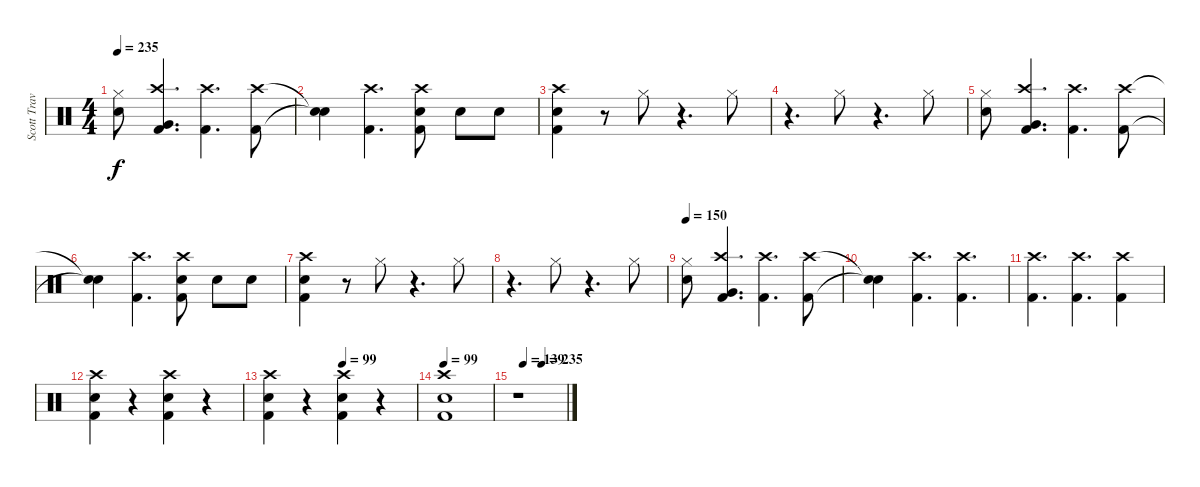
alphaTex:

\track ("Scott Travis" "Scott Trav") {instrument percussion}
\staff {score}
\articulation defaults
\ts (4 4)
\tempo 235
\clef neutral
\ks c
("Hi-Hat (closed)" "Snare (hit) 2").8{dy f} ("Kick (hit) 2" "Crash high (hit)" "Very Low Tom (hit)").4{d} ("Kick (hit) 2" "Crash high (hit)").4{d} ("Kick (hit) 2" "Crash high (hit)").8 |
("Snare (hit)"{t} "Snare (hit)"{t}).4 ("Kick (hit) 2" "Crash high (hit)").4{d} ("Kick (hit) 2" "Crash high (hit)" "Snare (hit) 2").8 "Snare (hit) 2".8 "Snare (hit) 2".8 |
("Crash high (hit)" "Kick (hit) 2" "Snare (hit) 2").4 r.8 "Hi-Hat (closed)".8 r.4{d} "Hi-Hat (closed)".8 |
r.4{d} "Hi-Hat (closed)".8 r.4{d} "Hi-Hat (closed)".8 |
("Hi-Hat (closed)" "Snare (hit) 2").8 ("Kick (hit) 2" "Crash high (hit)" "Very Low Tom (hit)").4{d} ("Kick (hit) 2" "Crash high (hit)").4{d} ("Kick (hit) 2" "Crash high (hit)").8 |
("Snare (hit)"{t} "Snare (hit)"{t}).4 ("Kick (hit) 2" "Crash high (hit)").4{d} ("Kick (hit) 2" "Crash high (hit)" "Snare (hit) 2").8 "Snare (hit) 2".8 "Snare (hit) 2".8 |
("Crash high (hit)" "Kick (hit) 2" "Snare (hit) 2").4 r.8 "Hi-Hat (closed)".8 r.4{d} "Hi-Hat (closed)".8 |
r.4{d} "Hi-Hat (closed)".8 r.4{d} "Hi-Hat (closed)".8 |
\tempo 150
("Hi-Hat (closed)" "Snare (hit) 2").8 ("Kick (hit) 2" "Crash high (hit)" "Very Low Tom (hit)").4{d} ("Kick (hit) 2" "Crash high (hit)").4{d} ("Kick (hit) 2" "Crash high (hit)").8 |
("Snare (hit)"{t} "Snare (hit)"{t}).4 ("Kick (hit) 2" "Crash high (hit)").4{d} ("Kick (hit) 2" "Crash high (hit)").4{d} |
("Kick (hit) 2" "Crash high (hit)").4{d} ("Kick (hit) 2" "Crash high (hit)").4{d} ("Kick (hit) 2" "Crash high (hit)").4 |
("Kick (hit) 2" "Snare (hit) 2" "Crash high (hit)").4 r.4 ("Kick (hit) 2" "Snare (hit) 2" "Crash high (hit)").4 r.4 |
\tempo (99 0.5)
("Kick (hit) 2" "Snare (hit) 2" "Crash high (hit)").4 r.4 ("Kick (hit) 2" "Snare (hit) 2" "Crash high (hit)").4 r.4 |
\tempo 99
("Kick (hit) 2" "Crash high (hit)" "Snare (hit) 2").1 |
\tempo (139 0.125)
\tempo (235 0.5)
r.1
